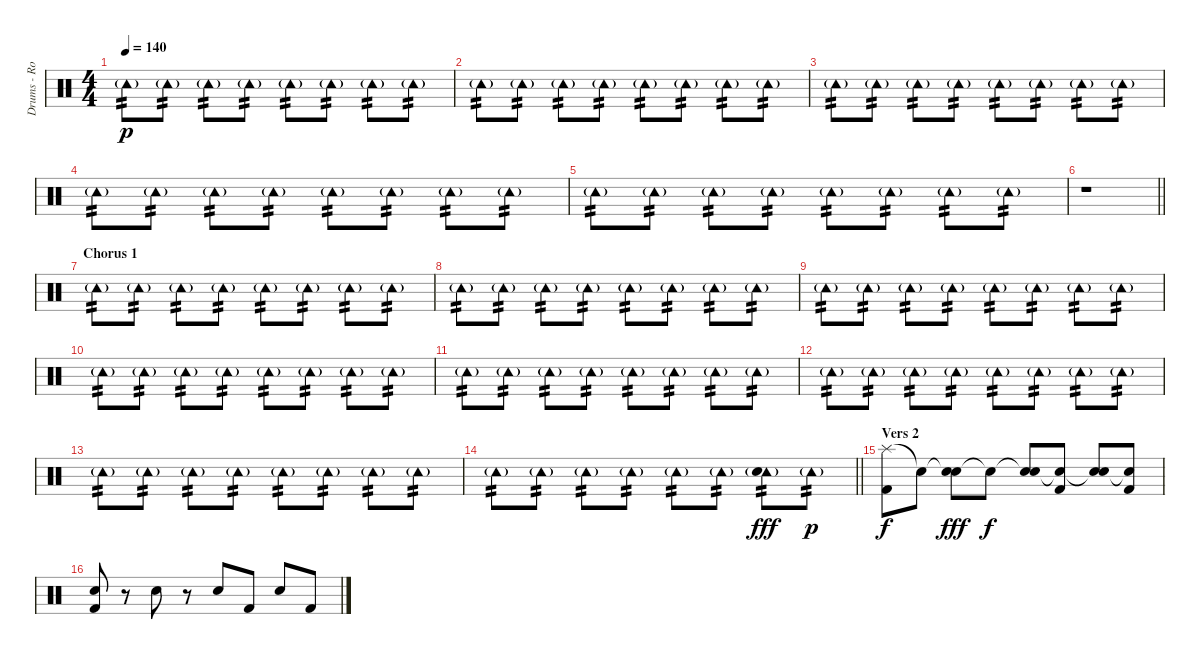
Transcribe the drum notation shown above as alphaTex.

\track ("Drums - Rob Bourdon" "Drums - Ro") {instrument percussion}
\staff {score}
\articulation defaults
\ts (4 4)
\tempo 140
\clef neutral
\ks c "Tambourine (hit)"{g}.8{tp 2 dy p} "Tambourine (hit)"{g}.8{tp 2} "Tambourine (hit)"{g}.8{tp 2} "Tambourine (hit)"{g}.8{tp 2} "Tambourine (hit)"{g}.8{tp 2} "Tambourine (hit)"{g}.8{tp 2} "Tambourine (hit)"{g}.8{tp 2} "Tambourine (hit)"{g}.8{tp 2}
|
"Tambourine (hit)"{g}.8{tp 2} "Tambourine (hit)"{g}.8{tp 2} "Tambourine (hit)"{g}.8{tp 2} "Tambourine (hit)"{g}.8{tp 2} "Tambourine (hit)"{g}.8{tp 2} "Tambourine (hit)"{g}.8{tp 2} "Tambourine (hit)"{g}.8{tp 2} "Tambourine (hit)"{g}.8{tp 2} |
"Tambourine (hit)"{g}.8{tp 2} "Tambourine (hit)"{g}.8{tp 2} "Tambourine (hit)"{g}.8{tp 2} "Tambourine (hit)"{g}.8{tp 2} "Tambourine (hit)"{g}.8{tp 2} "Tambourine (hit)"{g}.8{tp 2} "Tambourine (hit)"{g}.8{tp 2} "Tambourine (hit)"{g}.8{tp 2} |
"Tambourine (hit)"{g}.8{tp 2} "Tambourine (hit)"{g}.8{tp 2} "Tambourine (hit)"{g}.8{tp 2} "Tambourine (hit)"{g}.8{tp 2} "Tambourine (hit)"{g}.8{tp 2} "Tambourine (hit)"{g}.8{tp 2} "Tambourine (hit)"{g}.8{tp 2} "Tambourine (hit)"{g}.8{tp 2} |
"Tambourine (hit)"{g}.8{tp 2} "Tambourine (hit)"{g}.8{tp 2} "Tambourine (hit)"{g}.8{tp 2} "Tambourine (hit)"{g}.8{tp 2} "Tambourine (hit)"{g}.8{tp 2} "Tambourine (hit)"{g}.8{tp 2} "Tambourine (hit)"{g}.8{tp 2} "Tambourine (hit)"{g}.8{tp 2} |
\barLineRight lightlight
r.1 |
\section ("" "Chorus 1")
"Tambourine (hit)"{g}.8{tp 2} "Tambourine (hit)"{g}.8{tp 2} "Tambourine (hit)"{g}.8{tp 2} "Tambourine (hit)"{g}.8{tp 2} "Tambourine (hit)"{g}.8{tp 2} "Tambourine (hit)"{g}.8{tp 2} "Tambourine (hit)"{g}.8{tp 2} "Tambourine (hit)"{g}.8{tp 2} |
"Tambourine (hit)"{g}.8{tp 2} "Tambourine (hit)"{g}.8{tp 2} "Tambourine (hit)"{g}.8{tp 2} "Tambourine (hit)"{g}.8{tp 2} "Tambourine (hit)"{g}.8{tp 2} "Tambourine (hit)"{g}.8{tp 2} "Tambourine (hit)"{g}.8{tp 2} "Tambourine (hit)"{g}.8{tp 2} |
"Tambourine (hit)"{g}.8{tp 2} "Tambourine (hit)"{g}.8{tp 2} "Tambourine (hit)"{g}.8{tp 2} "Tambourine (hit)"{g}.8{tp 2} "Tambourine (hit)"{g}.8{tp 2} "Tambourine (hit)"{g}.8{tp 2} "Tambourine (hit)"{g}.8{tp 2} "Tambourine (hit)"{g}.8{tp 2} |
"Tambourine (hit)"{g}.8{tp 2} "Tambourine (hit)"{g}.8{tp 2} "Tambourine (hit)"{g}.8{tp 2} "Tambourine (hit)"{g}.8{tp 2} "Tambourine (hit)"{g}.8{tp 2} "Tambourine (hit)"{g}.8{tp 2} "Tambourine (hit)"{g}.8{tp 2} "Tambourine (hit)"{g}.8{tp 2} |
"Tambourine (hit)"{g}.8{tp 2} "Tambourine (hit)"{g}.8{tp 2} "Tambourine (hit)"{g}.8{tp 2} "Tambourine (hit)"{g}.8{tp 2} "Tambourine (hit)"{g}.8{tp 2} "Tambourine (hit)"{g}.8{tp 2} "Tambourine (hit)"{g}.8{tp 2} "Tambourine (hit)"{g}.8{tp 2} |
"Tambourine (hit)"{g}.8{tp 2} "Tambourine (hit)"{g}.8{tp 2} "Tambourine (hit)"{g}.8{tp 2} "Tambourine (hit)"{g}.8{tp 2} "Tambourine (hit)"{g}.8{tp 2} "Tambourine (hit)"{g}.8{tp 2} "Tambourine (hit)"{g}.8{tp 2} "Tambourine (hit)"{g}.8{tp 2} |
"Tambourine (hit)"{g}.8{tp 2} "Tambourine (hit)"{g}.8{tp 2} "Tambourine (hit)"{g}.8{tp 2} "Tambourine (hit)"{g}.8{tp 2} "Tambourine (hit)"{g}.8{tp 2} "Tambourine (hit)"{g}.8{tp 2} "Tambourine (hit)"{g}.8{tp 2} "Tambourine (hit)"{g}.8{tp 2} |
\barLineRight lightlight "Tambourine (hit)"{g}.8{tp 2} "Tambourine (hit)"{g}.8{tp 2} "Tambourine (hit)"{g}.8{tp 2} "Tambourine (hit)"{g}.8{tp 2} "Tambourine (hit)"{g}.8{tp 2} "Tambourine (hit)"{g}.8{tp 2}
("Tambourine (hit)"{g} "Electric Snare (hit)").8{tp 2 dy fff} "Tambourine (hit)"{g}.8{tp 2 dy p} |
\section ("" "Vers 2")
("Splash (hit)" "Kick (hit) 2").8{dy f} "Snare (hit)"{t}.8 ("Snare (hit)"{t} "Electric Snare (hit)").8{dy fff} "Snare (hit)"{t}.8{dy f} ("Snare (hit)"{t} "Electric Snare (hit)").8 ("Snare (hit)"{t} "Kick (hit) 2").8 ("Snare (hit)"{t} "Electric Snare (hit)").8 ("Snare (hit)"{t} "Kick (hit) 2").8 |
("Electric Snare (hit)" "Kick (hit) 2").8 r.8 "Electric Snare (hit)".8 r.8 "Electric Snare (hit)".8 "Kick (hit) 2".8 "Electric Snare (hit)".8 "Kick (hit) 2".8
